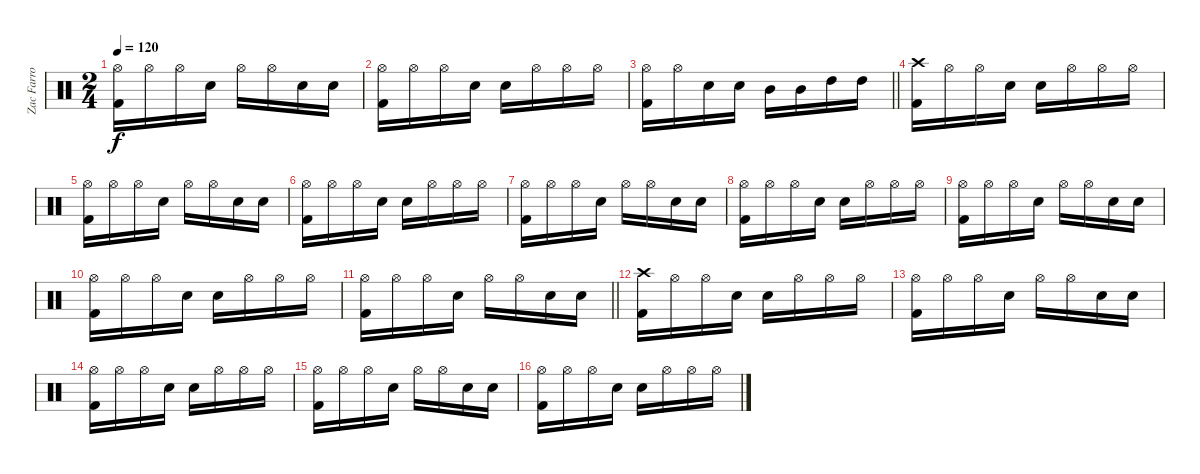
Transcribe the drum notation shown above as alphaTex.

\track ("Zac Farro" "Zac Farro") {instrument percussion}
\staff {score}
\articulation defaults
\ts (2 4)
\tempo 120
\clef neutral
\ks c
("Hi-Hat (open)" "Kick (hit) 2").16{dy f} "Hi-Hat (open)".16 "Hi-Hat (open)".16 "Electric Snare (hit)".16 "Hi-Hat (open)".16 "Hi-Hat (open)".16 "Electric Snare (hit)".16 "Electric Snare (hit)".16 |
("Hi-Hat (open)" "Kick (hit) 2").16 "Hi-Hat (open)".16 "Hi-Hat (open)".16 "Electric Snare (hit)".16 "Electric Snare (hit)".16 "Hi-Hat (open)".16 "Hi-Hat (open)".16 "Hi-Hat (open)".16 |
\barLineRight lightlight
("Hi-Hat (open)" "Kick (hit) 2").16 "Hi-Hat (open)".16 "Electric Snare (hit)".16 "Electric Snare (hit)".16 "Mid Tom (hit)".16 "Mid Tom (hit)".16 "High Tom (hit)".16 "High Tom (hit)".16 |
("Kick (hit) 2" "Crash high (hit)").16 "Hi-Hat (open)".16 "Hi-Hat (open)".16 "Electric Snare (hit)".16 "Electric Snare (hit)".16 "Hi-Hat (open)".16 "Hi-Hat (open)".16 "Hi-Hat (open)".16 |
("Hi-Hat (open)" "Kick (hit) 2").16 "Hi-Hat (open)".16 "Hi-Hat (open)".16 "Electric Snare (hit)".16 "Hi-Hat (open)".16 "Hi-Hat (open)".16 "Electric Snare (hit)".16 "Electric Snare (hit)".16 |
("Hi-Hat (open)" "Kick (hit) 2").16 "Hi-Hat (open)".16 "Hi-Hat (open)".16 "Electric Snare (hit)".16 "Electric Snare (hit)".16 "Hi-Hat (open)".16 "Hi-Hat (open)".16 "Hi-Hat (open)".16 |
("Hi-Hat (open)" "Kick (hit) 2").16 "Hi-Hat (open)".16 "Hi-Hat (open)".16 "Electric Snare (hit)".16 "Hi-Hat (open)".16 "Hi-Hat (open)".16 "Electric Snare (hit)".16 "Electric Snare (hit)".16 |
("Hi-Hat (open)" "Kick (hit) 2").16 "Hi-Hat (open)".16 "Hi-Hat (open)".16 "Electric Snare (hit)".16 "Electric Snare (hit)".16 "Hi-Hat (open)".16 "Hi-Hat (open)".16 "Hi-Hat (open)".16 |
("Hi-Hat (open)" "Kick (hit) 2").16 "Hi-Hat (open)".16 "Hi-Hat (open)".16 "Electric Snare (hit)".16 "Hi-Hat (open)".16 "Hi-Hat (open)".16 "Electric Snare (hit)".16 "Electric Snare (hit)".16 |
("Hi-Hat (open)" "Kick (hit) 2").16 "Hi-Hat (open)".16 "Hi-Hat (open)".16 "Electric Snare (hit)".16 "Electric Snare (hit)".16 "Hi-Hat (open)".16 "Hi-Hat (open)".16 "Hi-Hat (open)".16 |
\barLineRight lightlight
("Hi-Hat (open)" "Kick (hit) 2").16 "Hi-Hat (open)".16 "Hi-Hat (open)".16 "Electric Snare (hit)".16 "Hi-Hat (open)".16 "Hi-Hat (open)".16 "Electric Snare (hit)".16 "Electric Snare (hit)".16 |
("Kick (hit) 2" "Crash high (hit)").16 "Hi-Hat (open)".16 "Hi-Hat (open)".16 "Electric Snare (hit)".16 "Electric Snare (hit)".16 "Hi-Hat (open)".16 "Hi-Hat (open)".16 "Hi-Hat (open)".16 |
("Hi-Hat (open)" "Kick (hit) 2").16 "Hi-Hat (open)".16 "Hi-Hat (open)".16 "Electric Snare (hit)".16 "Hi-Hat (open)".16 "Hi-Hat (open)".16 "Electric Snare (hit)".16 "Electric Snare (hit)".16 |
("Hi-Hat (open)" "Kick (hit) 2").16 "Hi-Hat (open)".16 "Hi-Hat (open)".16 "Electric Snare (hit)".16 "Electric Snare (hit)".16 "Hi-Hat (open)".16 "Hi-Hat (open)".16 "Hi-Hat (open)".16 |
("Hi-Hat (open)" "Kick (hit) 2").16 "Hi-Hat (open)".16 "Hi-Hat (open)".16 "Electric Snare (hit)".16 "Hi-Hat (open)".16 "Hi-Hat (open)".16 "Electric Snare (hit)".16 "Electric Snare (hit)".16 |
("Hi-Hat (open)" "Kick (hit) 2").16 "Hi-Hat (open)".16 "Hi-Hat (open)".16 "Electric Snare (hit)".16 "Electric Snare (hit)".16 "Hi-Hat (open)".16 "Hi-Hat (open)".16 "Hi-Hat (open)".16
